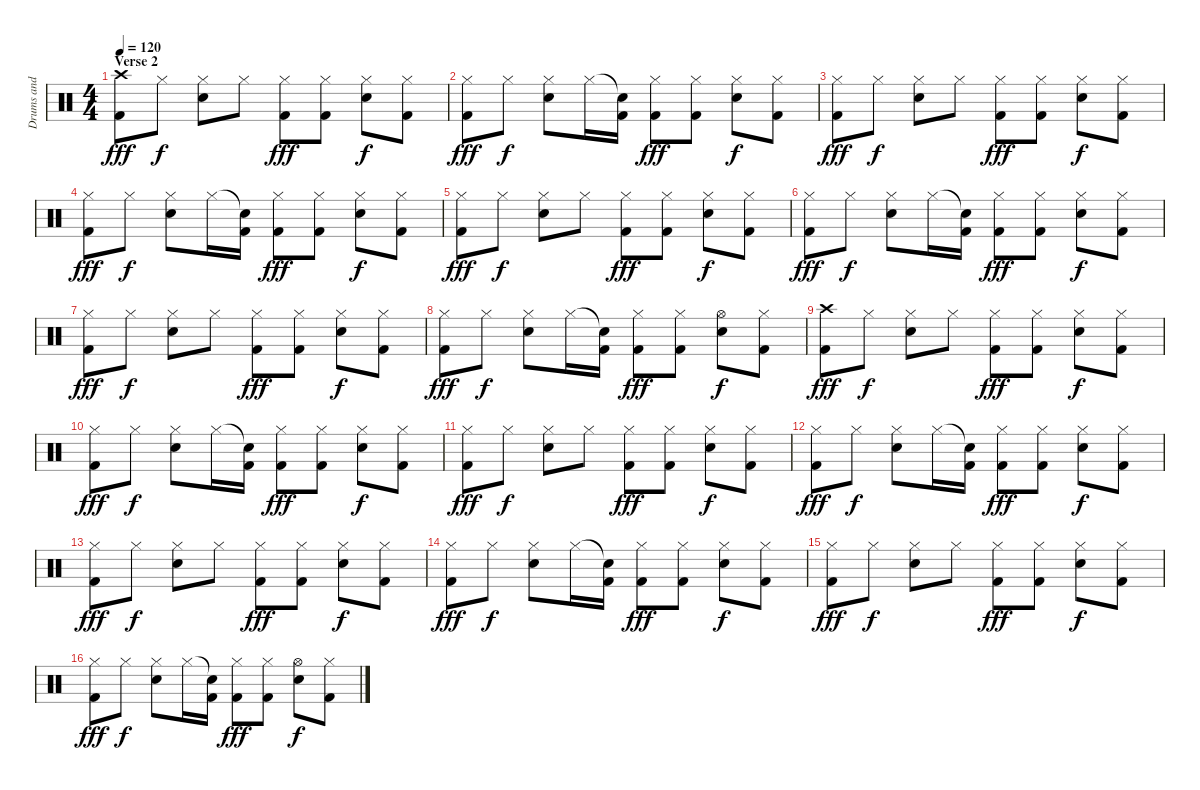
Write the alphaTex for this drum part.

\track ("Drums and Percussion" "Drums and ") {instrument percussion}
\staff {score}
\articulation defaults
\ts (4 4)
\section ("" "Verse 2")
\tempo 120
\clef neutral
\ks c
("Crash high (hit)" "Kick (hit) 2").8{dy fff} "Hi-Hat (closed)".8{dy f} ("Hi-Hat (closed)" "Snare (hit) 2").8 "Hi-Hat (closed)".8 ("Hi-Hat (closed)" "Kick (hit) 2").8{dy fff} ("Hi-Hat (closed)" "Kick (hit) 2").8 ("Hi-Hat (closed)" "Snare (hit) 2").8{dy f} ("Hi-Hat (closed)" "Kick (hit) 2").8 |
("Hi-Hat (closed)" "Kick (hit) 2").8{dy fff} "Hi-Hat (closed)".8{dy f} ("Hi-Hat (closed)" "Snare (hit) 2").8 "Hi-Hat (closed)".16 ("Snare (hit)"{t} "Kick (hit) 2").16 ("Hi-Hat (closed)" "Kick (hit) 2").8{dy fff} ("Hi-Hat (closed)" "Kick (hit) 2").8 ("Hi-Hat (closed)" "Snare (hit) 2").8{dy f} ("Hi-Hat (closed)" "Kick (hit) 2").8 |
("Hi-Hat (closed)" "Kick (hit) 2").8{dy fff} "Hi-Hat (closed)".8{dy f} ("Hi-Hat (closed)" "Snare (hit) 2").8 "Hi-Hat (closed)".8 ("Hi-Hat (closed)" "Kick (hit) 2").8{dy fff} ("Hi-Hat (closed)" "Kick (hit) 2").8 ("Hi-Hat (closed)" "Snare (hit) 2").8{dy f} ("Hi-Hat (closed)" "Kick (hit) 2").8 |
("Hi-Hat (closed)" "Kick (hit) 2").8{dy fff} "Hi-Hat (closed)".8{dy f} ("Hi-Hat (closed)" "Snare (hit) 2").8 "Hi-Hat (closed)".16 ("Snare (hit)"{t} "Kick (hit) 2").16 ("Hi-Hat (closed)" "Kick (hit) 2").8{dy fff} ("Hi-Hat (closed)" "Kick (hit) 2").8 ("Hi-Hat (closed)" "Snare (hit) 2").8{dy f} ("Hi-Hat (closed)" "Kick (hit) 2").8 |
("Hi-Hat (closed)" "Kick (hit) 2").8{dy fff} "Hi-Hat (closed)".8{dy f} ("Hi-Hat (closed)" "Snare (hit) 2").8 "Hi-Hat (closed)".8 ("Hi-Hat (closed)" "Kick (hit) 2").8{dy fff} ("Hi-Hat (closed)" "Kick (hit) 2").8 ("Hi-Hat (closed)" "Snare (hit) 2").8{dy f} ("Hi-Hat (closed)" "Kick (hit) 2").8 |
("Hi-Hat (closed)" "Kick (hit) 2").8{dy fff} "Hi-Hat (closed)".8{dy f} ("Hi-Hat (closed)" "Snare (hit) 2").8 "Hi-Hat (closed)".16 ("Snare (hit)"{t} "Kick (hit) 2").16 ("Hi-Hat (closed)" "Kick (hit) 2").8{dy fff} ("Hi-Hat (closed)" "Kick (hit) 2").8 ("Hi-Hat (closed)" "Snare (hit) 2").8{dy f} ("Hi-Hat (closed)" "Kick (hit) 2").8 |
("Hi-Hat (closed)" "Kick (hit) 2").8{dy fff} "Hi-Hat (closed)".8{dy f} ("Hi-Hat (closed)" "Snare (hit) 2").8 "Hi-Hat (closed)".8 ("Hi-Hat (closed)" "Kick (hit) 2").8{dy fff} ("Hi-Hat (closed)" "Kick (hit) 2").8 ("Hi-Hat (closed)" "Snare (hit) 2").8{dy f} ("Hi-Hat (closed)" "Kick (hit) 2").8 |
("Hi-Hat (closed)" "Kick (hit) 2").8{dy fff} "Hi-Hat (closed)".8{dy f} ("Hi-Hat (closed)" "Snare (hit) 2").8 "Hi-Hat (closed)".16 ("Snare (hit)"{t} "Kick (hit) 2").16 ("Hi-Hat (closed)" "Kick (hit) 2").8{dy fff} ("Hi-Hat (closed)" "Kick (hit) 2").8 ("Hi-Hat (open)" "Snare (hit) 2").8{dy f} ("Hi-Hat (closed)" "Kick (hit) 2").8 |
("Crash high (hit)" "Kick (hit) 2").8{dy fff} "Hi-Hat (closed)".8{dy f} ("Hi-Hat (closed)" "Snare (hit) 2").8 "Hi-Hat (closed)".8 ("Hi-Hat (closed)" "Kick (hit) 2").8{dy fff} ("Hi-Hat (closed)" "Kick (hit) 2").8 ("Hi-Hat (closed)" "Snare (hit) 2").8{dy f} ("Hi-Hat (closed)" "Kick (hit) 2").8 |
("Hi-Hat (closed)" "Kick (hit) 2").8{dy fff} "Hi-Hat (closed)".8{dy f} ("Hi-Hat (closed)" "Snare (hit) 2").8 "Hi-Hat (closed)".16 ("Snare (hit)"{t} "Kick (hit) 2").16 ("Hi-Hat (closed)" "Kick (hit) 2").8{dy fff} ("Hi-Hat (closed)" "Kick (hit) 2").8 ("Hi-Hat (closed)" "Snare (hit) 2").8{dy f} ("Hi-Hat (closed)" "Kick (hit) 2").8 |
("Hi-Hat (closed)" "Kick (hit) 2").8{dy fff} "Hi-Hat (closed)".8{dy f} ("Hi-Hat (closed)" "Snare (hit) 2").8 "Hi-Hat (closed)".8 ("Hi-Hat (closed)" "Kick (hit) 2").8{dy fff} ("Hi-Hat (closed)" "Kick (hit) 2").8 ("Hi-Hat (closed)" "Snare (hit) 2").8{dy f} ("Hi-Hat (closed)" "Kick (hit) 2").8 |
("Hi-Hat (closed)" "Kick (hit) 2").8{dy fff} "Hi-Hat (closed)".8{dy f} ("Hi-Hat (closed)" "Snare (hit) 2").8 "Hi-Hat (closed)".16 ("Snare (hit)"{t} "Kick (hit) 2").16 ("Hi-Hat (closed)" "Kick (hit) 2").8{dy fff} ("Hi-Hat (closed)" "Kick (hit) 2").8 ("Hi-Hat (closed)" "Snare (hit) 2").8{dy f} ("Hi-Hat (closed)" "Kick (hit) 2").8 |
("Hi-Hat (closed)" "Kick (hit) 2").8{dy fff} "Hi-Hat (closed)".8{dy f} ("Hi-Hat (closed)" "Snare (hit) 2").8 "Hi-Hat (closed)".8 ("Hi-Hat (closed)" "Kick (hit) 2").8{dy fff} ("Hi-Hat (closed)" "Kick (hit) 2").8 ("Hi-Hat (closed)" "Snare (hit) 2").8{dy f} ("Hi-Hat (closed)" "Kick (hit) 2").8 |
("Hi-Hat (closed)" "Kick (hit) 2").8{dy fff} "Hi-Hat (closed)".8{dy f} ("Hi-Hat (closed)" "Snare (hit) 2").8 "Hi-Hat (closed)".16 ("Snare (hit)"{t} "Kick (hit) 2").16 ("Hi-Hat (closed)" "Kick (hit) 2").8{dy fff} ("Hi-Hat (closed)" "Kick (hit) 2").8 ("Hi-Hat (closed)" "Snare (hit) 2").8{dy f} ("Hi-Hat (closed)" "Kick (hit) 2").8 |
("Hi-Hat (closed)" "Kick (hit) 2").8{dy fff} "Hi-Hat (closed)".8{dy f} ("Hi-Hat (closed)" "Snare (hit) 2").8 "Hi-Hat (closed)".8 ("Hi-Hat (closed)" "Kick (hit) 2").8{dy fff} ("Hi-Hat (closed)" "Kick (hit) 2").8 ("Hi-Hat (closed)" "Snare (hit) 2").8{dy f} ("Hi-Hat (closed)" "Kick (hit) 2").8 |
("Hi-Hat (closed)" "Kick (hit) 2").8{dy fff} "Hi-Hat (closed)".8{dy f} ("Hi-Hat (closed)" "Snare (hit) 2").8 "Hi-Hat (closed)".16 ("Snare (hit)"{t} "Kick (hit) 2").16 ("Hi-Hat (closed)" "Kick (hit) 2").8{dy fff} ("Hi-Hat (closed)" "Kick (hit) 2").8 ("Hi-Hat (open)" "Snare (hit) 2").8{dy f} ("Hi-Hat (closed)" "Kick (hit) 2").8
